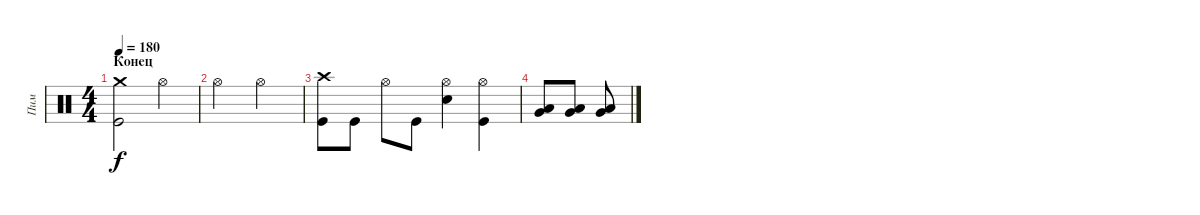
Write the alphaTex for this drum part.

\track ("Пим" "Пим") {instrument percussion}
\staff {score}
\articulation defaults
\ts (4 4)
\section ("" "Конец")
\tempo 180
\clef neutral
\ks c
("Crash medium (hit)" "Kick (hit)").2{dy f} "Hi-Hat (open)".4 |
"Hi-Hat (open)".2 "Hi-Hat (open)".2 |
("Crash high (hit)" "Kick (hit)").8 "Kick (hit)".8 "Hi-Hat (open)".8 "Kick (hit)".8 ("Hi-Hat (open)" "Snare (hit) 2").4 ("Hi-Hat (open)" "Kick (hit)").4 |
("Low Floor Tom (hit)" "Very Low Tom (hit)").8 ("Low Floor Tom (hit)" "Very Low Tom (hit)").8 ("Low Floor Tom (hit)" "Very Low Tom (hit)").8
